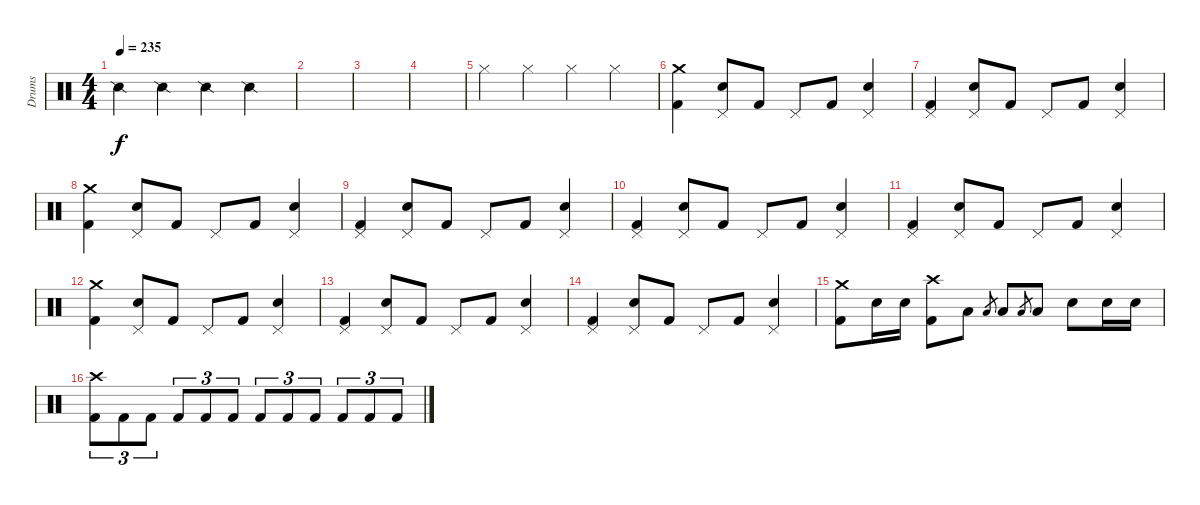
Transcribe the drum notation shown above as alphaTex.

\track ("Drums" "Drums") {instrument percussion}
\staff {score}
\articulation defaults
\ts (4 4)
\tempo 235
\clef neutral
\ks c "Snare (side stick) 2".4{dy f} "Snare (side stick) 2".4 "Snare (side stick) 2".4 "Snare (side stick) 2".4
|
|
|
|
"Hi-Hat (closed)".4 "Hi-Hat (closed)".4 "Hi-Hat (closed)".4 "Hi-Hat (closed)".4 |
("Crash medium (hit)" "Kick (hit) 2").4 ("Pedal Hi-Hat (hit)" "Electric Snare (hit)").8 "Kick (hit) 2".8 "Pedal Hi-Hat (hit)".8 "Kick (hit) 2".8 ("Pedal Hi-Hat (hit)" "Electric Snare (hit)").4 |
("Pedal Hi-Hat (hit)" "Kick (hit) 2").4 ("Pedal Hi-Hat (hit)" "Electric Snare (hit)").8 "Kick (hit) 2".8 "Pedal Hi-Hat (hit)".8 "Kick (hit) 2".8 ("Pedal Hi-Hat (hit)" "Electric Snare (hit)").4 |
("Crash medium (hit)" "Kick (hit) 2").4 ("Pedal Hi-Hat (hit)" "Electric Snare (hit)").8 "Kick (hit) 2".8 "Pedal Hi-Hat (hit)".8 "Kick (hit) 2".8 ("Pedal Hi-Hat (hit)" "Electric Snare (hit)").4 |
("Pedal Hi-Hat (hit)" "Kick (hit) 2").4 ("Pedal Hi-Hat (hit)" "Electric Snare (hit)").8 "Kick (hit) 2".8 "Pedal Hi-Hat (hit)".8 "Kick (hit) 2".8 ("Pedal Hi-Hat (hit)" "Electric Snare (hit)").4 |
("Pedal Hi-Hat (hit)" "Kick (hit) 2").4 ("Pedal Hi-Hat (hit)" "Electric Snare (hit)").8 "Kick (hit) 2".8 "Pedal Hi-Hat (hit)".8 "Kick (hit) 2".8 ("Pedal Hi-Hat (hit)" "Electric Snare (hit)").4 |
("Pedal Hi-Hat (hit)" "Kick (hit) 2").4 ("Pedal Hi-Hat (hit)" "Electric Snare (hit)").8 "Kick (hit) 2".8 "Pedal Hi-Hat (hit)".8 "Kick (hit) 2".8 ("Pedal Hi-Hat (hit)" "Electric Snare (hit)").4 |
("Crash medium (hit)" "Kick (hit) 2").4 ("Pedal Hi-Hat (hit)" "Electric Snare (hit)").8 "Kick (hit) 2".8 "Pedal Hi-Hat (hit)".8 "Kick (hit) 2".8 ("Pedal Hi-Hat (hit)" "Electric Snare (hit)").4 |
("Pedal Hi-Hat (hit)" "Kick (hit) 2").4 ("Pedal Hi-Hat (hit)" "Electric Snare (hit)").8 "Kick (hit) 2".8 "Pedal Hi-Hat (hit)".8 "Kick (hit) 2".8 ("Pedal Hi-Hat (hit)" "Electric Snare (hit)").4 |
("Pedal Hi-Hat (hit)" "Kick (hit) 2").4 ("Pedal Hi-Hat (hit)" "Electric Snare (hit)").8 "Kick (hit) 2".8 "Pedal Hi-Hat (hit)".8 "Kick (hit) 2".8 ("Pedal Hi-Hat (hit)" "Electric Snare (hit)").4 |
("Crash medium (hit)" "Kick (hit) 2").8 "Electric Snare (hit)".16 "Electric Snare (hit)".16 ("Crash high (hit)" "Kick (hit) 2").8 "Low Tom (hit)".8 "Low Tom (hit)".8{gr} "Low Tom (hit)".8 "Low Tom (hit)".8{gr} "Low Tom (hit)".8 "Electric Snare (hit)".8 "Electric Snare (hit)".16 "Electric Snare (hit)".16 |
("Crash high (hit)" "Kick (hit) 2").8{tu (3 2)} "Kick (hit) 2".8{tu (3 2)} "Kick (hit) 2".8{tu (3 2)} "Kick (hit) 2".8{tu (3 2)} "Kick (hit) 2".8{tu (3 2)} "Kick (hit) 2".8{tu (3 2)} "Kick (hit) 2".8{tu (3 2)} "Kick (hit) 2".8{tu (3 2)} "Kick (hit) 2".8{tu (3 2)} "Kick (hit) 2".8{tu (3 2)} "Kick (hit) 2".8{tu (3 2)} "Kick (hit) 2".8{tu (3 2)}
